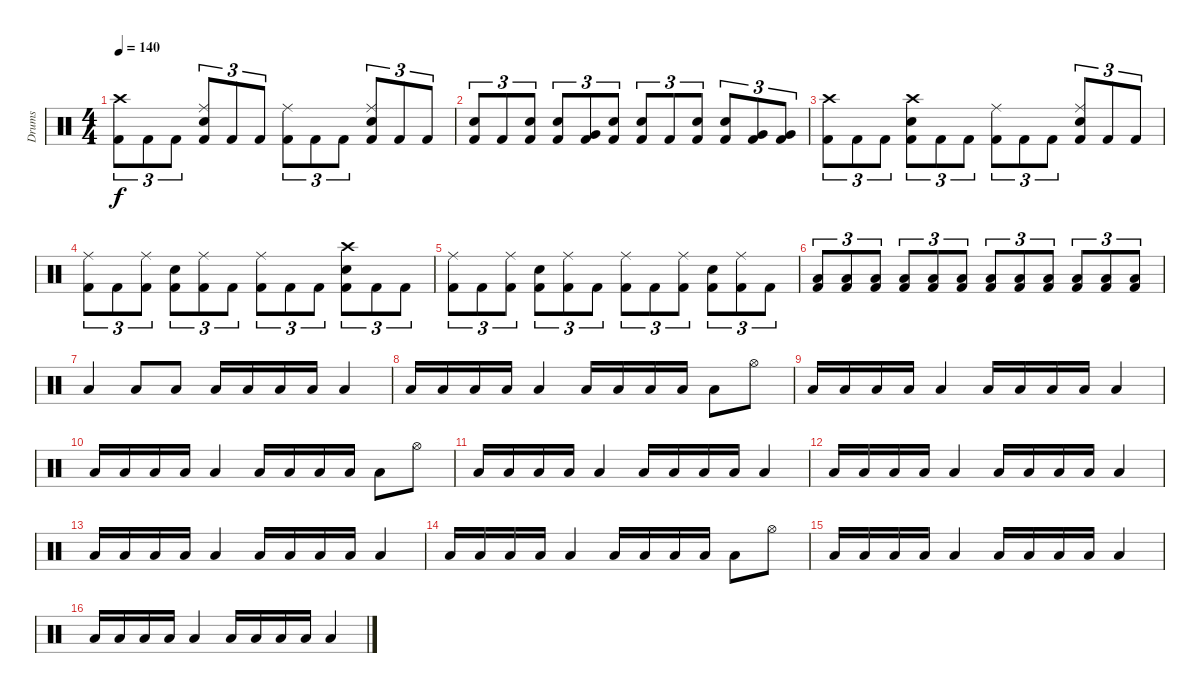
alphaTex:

\track ("Drums" "Drums") {instrument percussion}
\staff {score}
\articulation defaults
\ts (4 4)
\tempo 140
\clef neutral
\ks c
("Crash high (hit)" "Kick (hit) 2").8{tu (3 2) dy f} "Kick (hit) 2".8{tu (3 2)} "Kick (hit) 2".8{tu (3 2)} ("Ride (middle)" "Electric Snare (hit)" "Kick (hit) 2").8{tu (3 2)} "Kick (hit) 2".8{tu (3 2)} "Kick (hit) 2".8{tu (3 2)} ("Ride (middle)" "Kick (hit) 2").8{tu (3 2)} "Kick (hit) 2".8{tu (3 2)} "Kick (hit) 2".8{tu (3 2)} ("Ride (middle)" "Electric Snare (hit)" "Kick (hit) 2").8{tu (3 2)} "Kick (hit) 2".8{tu (3 2)} "Kick (hit) 2".8{tu (3 2)} |
("Electric Snare (hit)" "Kick (hit) 2").8{tu (3 2)} "Kick (hit) 2".8{tu (3 2)} ("Electric Snare (hit)" "Kick (hit) 2").8{tu (3 2)} ("Electric Snare (hit)" "Kick (hit) 2").8{tu (3 2)} ("Very Low Tom (hit)" "Kick (hit) 2").8{tu (3 2)} ("Electric Snare (hit)" "Kick (hit) 2").8{tu (3 2)} ("Electric Snare (hit)" "Kick (hit) 2").8{tu (3 2)} "Kick (hit) 2".8{tu (3 2)} ("Electric Snare (hit)" "Kick (hit) 2").8{tu (3 2)} ("Electric Snare (hit)" "Kick (hit) 2").8{tu (3 2)} ("Very Low Tom (hit)" "Kick (hit) 2").8{tu (3 2)} ("Very Low Tom (hit)" "Kick (hit) 2").8{tu (3 2)} |
("Crash high (hit)" "Kick (hit) 2").8{tu (3 2)} "Kick (hit) 2".8{tu (3 2)} "Kick (hit) 2".8{tu (3 2)} ("Crash high (hit)" "Electric Snare (hit)" "Kick (hit) 2").8{tu (3 2)} "Kick (hit) 2".8{tu (3 2)} "Kick (hit) 2".8{tu (3 2)} ("Ride (middle)" "Kick (hit) 2").8{tu (3 2)} "Kick (hit) 2".8{tu (3 2)} "Kick (hit) 2".8{tu (3 2)} ("Ride (middle)" "Electric Snare (hit)" "Kick (hit) 2").8{tu (3 2)} "Kick (hit) 2".8{tu (3 2)} "Kick (hit) 2".8{tu (3 2)} |
("Ride (middle)" "Kick (hit) 2").8{tu (3 2)} "Kick (hit) 2".8{tu (3 2)} ("Ride (middle)" "Kick (hit) 2").8{tu (3 2)} ("Electric Snare (hit)" "Kick (hit) 2").8{tu (3 2)} ("Ride (middle)" "Kick (hit) 2").8{tu (3 2)} "Kick (hit) 2".8{tu (3 2)} ("Ride (middle)" "Kick (hit) 2").8{tu (3 2)} "Kick (hit) 2".8{tu (3 2)} "Kick (hit) 2".8{tu (3 2)} ("Crash high (hit)" "Electric Snare (hit)" "Kick (hit) 2").8{tu (3 2)} "Kick (hit) 2".8{tu (3 2)} "Kick (hit) 2".8{tu (3 2)} |
("Ride (middle)" "Kick (hit) 2").8{tu (3 2)} "Kick (hit) 2".8{tu (3 2)} ("Ride (middle)" "Kick (hit) 2").8{tu (3 2)} ("Electric Snare (hit)" "Kick (hit) 2").8{tu (3 2)} ("Ride (middle)" "Kick (hit) 2").8{tu (3 2)} "Kick (hit) 2".8{tu (3 2)} ("Ride (middle)" "Kick (hit) 2").8{tu (3 2)} "Kick (hit) 2".8{tu (3 2)} ("Ride (middle)" "Kick (hit) 2").8{tu (3 2)} ("Electric Snare (hit)" "Kick (hit) 2").8{tu (3 2)} ("Ride (middle)" "Kick (hit) 2").8{tu (3 2)} "Kick (hit) 2".8{tu (3 2)} |
("Low Tom (hit)" "Kick (hit) 2").8{tu (3 2)} ("Low Tom (hit)" "Kick (hit) 2").8{tu (3 2)} ("Low Tom (hit)" "Kick (hit) 2").8{tu (3 2)} ("Low Tom (hit)" "Kick (hit) 2").8{tu (3 2)} ("Low Tom (hit)" "Kick (hit) 2").8{tu (3 2)} ("Low Tom (hit)" "Kick (hit) 2").8{tu (3 2)} ("Low Tom (hit)" "Kick (hit) 2").8{tu (3 2)} ("Low Tom (hit)" "Kick (hit) 2").8{tu (3 2)} ("Low Tom (hit)" "Kick (hit) 2").8{tu (3 2)} ("Low Tom (hit)" "Kick (hit) 2").8{tu (3 2)} ("Low Tom (hit)" "Kick (hit) 2").8{tu (3 2)} ("Low Tom (hit)" "Kick (hit) 2").8{tu (3 2)} |
"Low Tom (hit)".4 "Low Tom (hit)".8 "Low Tom (hit)".8 "Low Tom (hit)".16 "Low Tom (hit)".16 "Low Tom (hit)".16 "Low Tom (hit)".16 "Low Tom (hit)".4 |
"Low Tom (hit)".16 "Low Tom (hit)".16 "Low Tom (hit)".16 "Low Tom (hit)".16 "Low Tom (hit)".4 "Low Tom (hit)".16 "Low Tom (hit)".16 "Low Tom (hit)".16 "Low Tom (hit)".16 "Low Tom (hit)".8 "Hi-Hat (open)".8 |
"Low Tom (hit)".16 "Low Tom (hit)".16 "Low Tom (hit)".16 "Low Tom (hit)".16 "Low Tom (hit)".4 "Low Tom (hit)".16 "Low Tom (hit)".16 "Low Tom (hit)".16 "Low Tom (hit)".16 "Low Tom (hit)".4 |
"Low Tom (hit)".16 "Low Tom (hit)".16 "Low Tom (hit)".16 "Low Tom (hit)".16 "Low Tom (hit)".4 "Low Tom (hit)".16 "Low Tom (hit)".16 "Low Tom (hit)".16 "Low Tom (hit)".16 "Low Tom (hit)".8 "Hi-Hat (open)".8 |
"Low Tom (hit)".16 "Low Tom (hit)".16 "Low Tom (hit)".16 "Low Tom (hit)".16 "Low Tom (hit)".4 "Low Tom (hit)".16 "Low Tom (hit)".16 "Low Tom (hit)".16 "Low Tom (hit)".16 "Low Tom (hit)".4 |
"Low Tom (hit)".16 "Low Tom (hit)".16 "Low Tom (hit)".16 "Low Tom (hit)".16 "Low Tom (hit)".4 "Low Tom (hit)".16 "Low Tom (hit)".16 "Low Tom (hit)".16 "Low Tom (hit)".16 "Low Tom (hit)".4 |
"Low Tom (hit)".16 "Low Tom (hit)".16 "Low Tom (hit)".16 "Low Tom (hit)".16 "Low Tom (hit)".4 "Low Tom (hit)".16 "Low Tom (hit)".16 "Low Tom (hit)".16 "Low Tom (hit)".16 "Low Tom (hit)".4 |
"Low Tom (hit)".16 "Low Tom (hit)".16 "Low Tom (hit)".16 "Low Tom (hit)".16 "Low Tom (hit)".4 "Low Tom (hit)".16 "Low Tom (hit)".16 "Low Tom (hit)".16 "Low Tom (hit)".16 "Low Tom (hit)".8 "Hi-Hat (open)".8 |
"Low Tom (hit)".16 "Low Tom (hit)".16 "Low Tom (hit)".16 "Low Tom (hit)".16 "Low Tom (hit)".4 "Low Tom (hit)".16 "Low Tom (hit)".16 "Low Tom (hit)".16 "Low Tom (hit)".16 "Low Tom (hit)".4 |
"Low Tom (hit)".16 "Low Tom (hit)".16 "Low Tom (hit)".16 "Low Tom (hit)".16 "Low Tom (hit)".4 "Low Tom (hit)".16 "Low Tom (hit)".16 "Low Tom (hit)".16 "Low Tom (hit)".16 "Low Tom (hit)".4
